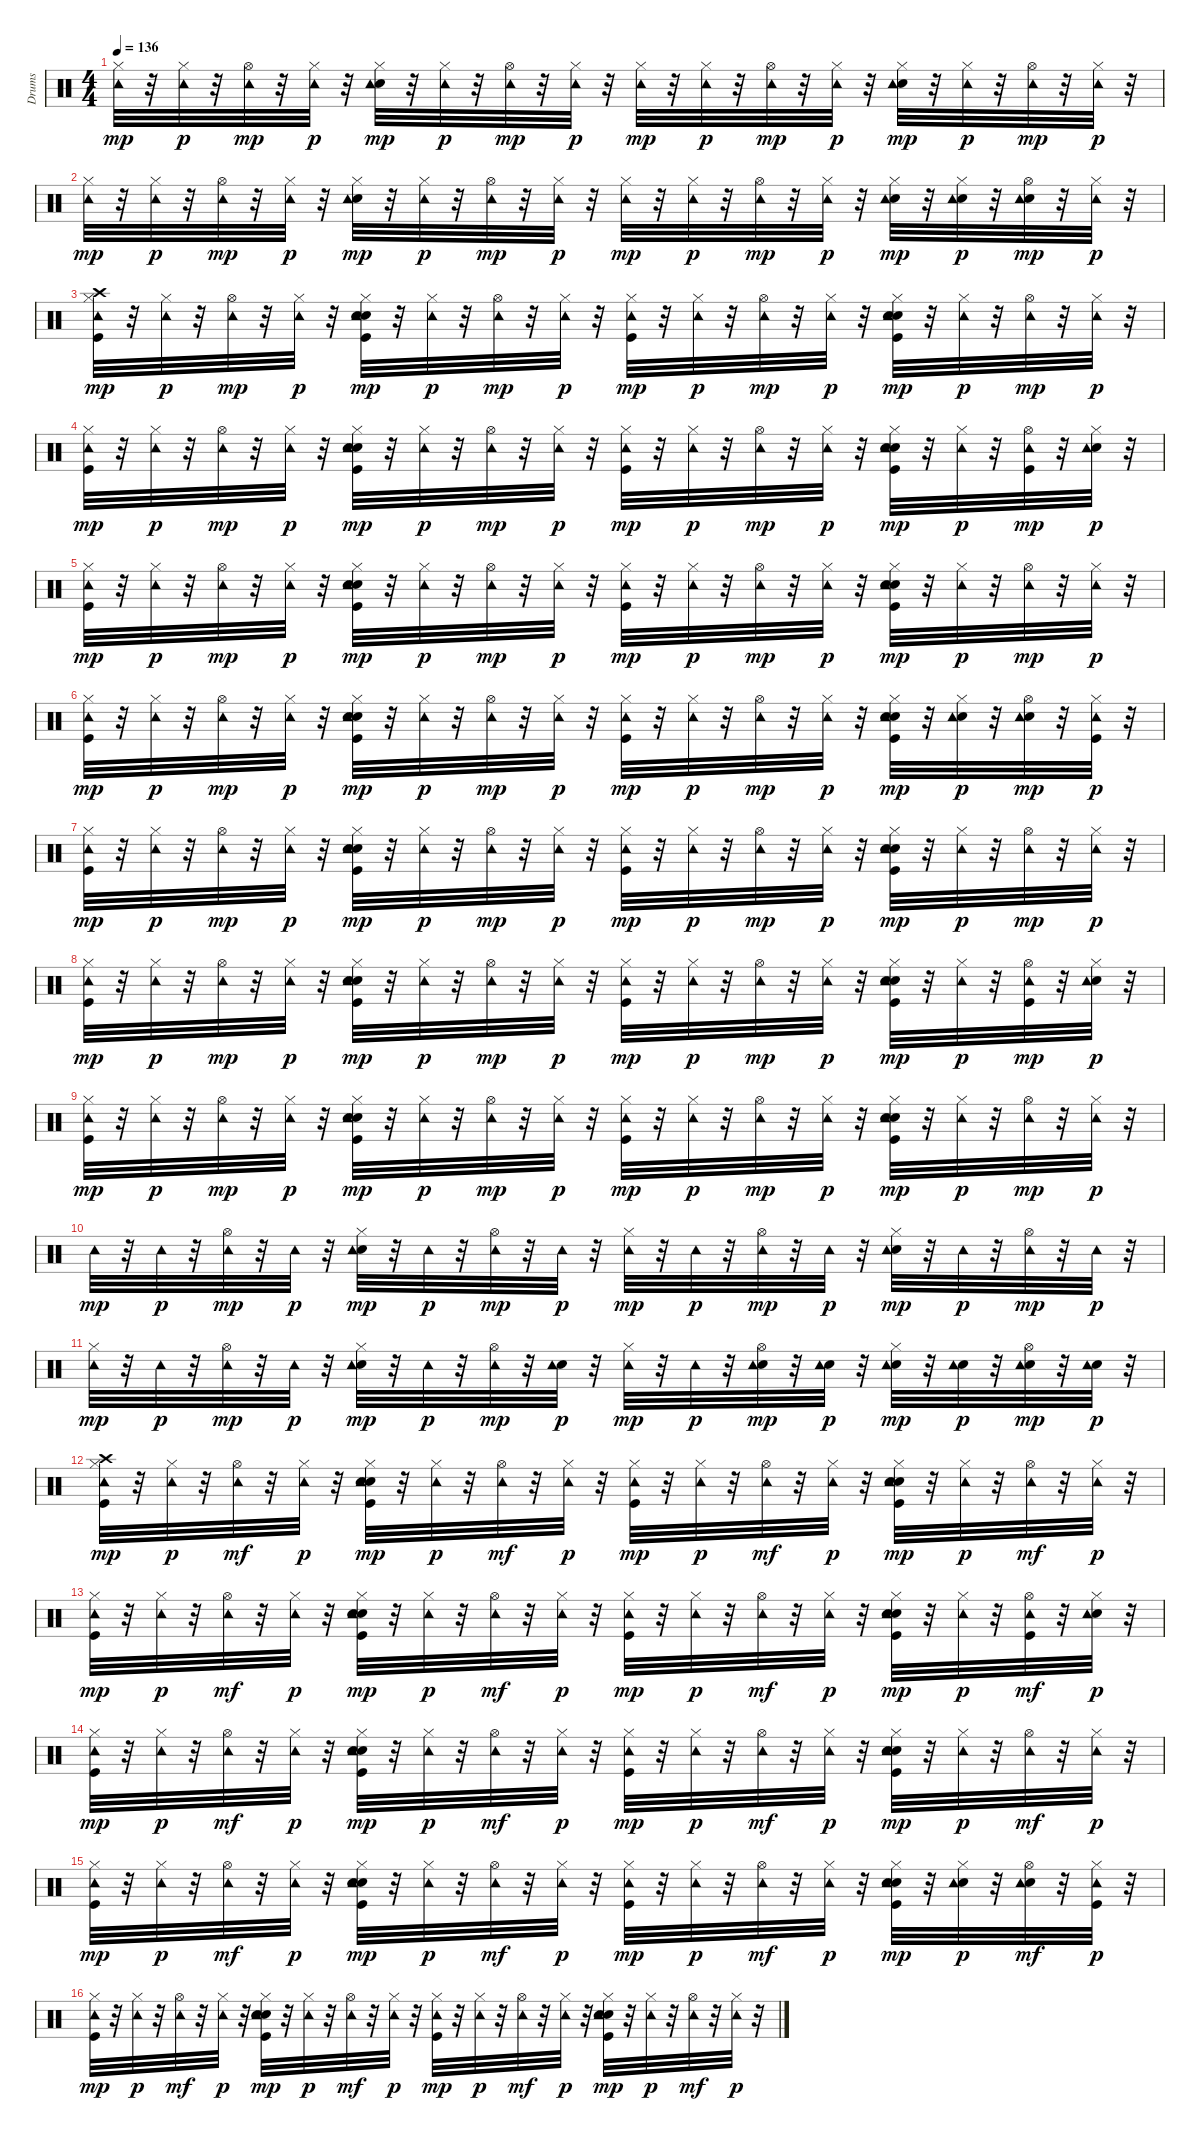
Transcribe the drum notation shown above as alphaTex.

\track ("Drums" "Drums") {instrument percussion}
\staff {score}
\articulation defaults
\ts (4 4)
\tempo 136
\clef neutral
\ks c
("Hi-Hat (closed)" "Tambourine (hit)").32{dy mp} r.32 ("Hi-Hat (closed)" "Tambourine (hit)").32{dy p} r.32 ("Hi-Hat (open)" "Tambourine (hit)").32{dy mp} r.32 ("Hi-Hat (closed)" "Tambourine (hit)").32{dy p} r.32 ("Hand Clap (hit)" "Hi-Hat (closed)" "Tambourine (hit)").32{dy mp} r.32 ("Hi-Hat (closed)" "Tambourine (hit)").32{dy p} r.32 ("Hi-Hat (open)" "Tambourine (hit)").32{dy mp} r.32 ("Hi-Hat (closed)" "Tambourine (hit)").32{dy p} r.32 ("Hi-Hat (closed)" "Tambourine (hit)").32{dy mp} r.32 ("Hi-Hat (closed)" "Tambourine (hit)").32{dy p} r.32 ("Hi-Hat (open)" "Tambourine (hit)").32{dy mp} r.32 ("Hi-Hat (closed)" "Tambourine (hit)").32{dy p} r.32 ("Hand Clap (hit)" "Hi-Hat (closed)" "Tambourine (hit)").32{dy mp} r.32 ("Hi-Hat (closed)" "Tambourine (hit)").32{dy p} r.32 ("Hi-Hat (open)" "Tambourine (hit)").32{dy mp} r.32 ("Hi-Hat (closed)" "Tambourine (hit)").32{dy p} r.32 |
("Hi-Hat (closed)" "Tambourine (hit)").32{dy mp} r.32 ("Hi-Hat (closed)" "Tambourine (hit)").32{dy p} r.32 ("Hi-Hat (open)" "Tambourine (hit)").32{dy mp} r.32 ("Hi-Hat (closed)" "Tambourine (hit)").32{dy p} r.32 ("Hand Clap (hit)" "Hi-Hat (closed)" "Tambourine (hit)").32{dy mp} r.32 ("Hi-Hat (closed)" "Tambourine (hit)").32{dy p} r.32 ("Hi-Hat (open)" "Tambourine (hit)").32{dy mp} r.32 ("Hi-Hat (closed)" "Tambourine (hit)").32{dy p} r.32 ("Hi-Hat (closed)" "Tambourine (hit)").32{dy mp} r.32 ("Hi-Hat (closed)" "Tambourine (hit)").32{dy p} r.32 ("Hi-Hat (open)" "Tambourine (hit)").32{dy mp} r.32 ("Hi-Hat (closed)" "Tambourine (hit)").32{dy p} r.32 ("Hand Clap (hit)" "Hi-Hat (closed)" "Tambourine (hit)").32{dy mp} r.32 ("Hand Clap (hit)" "Hi-Hat (closed)" "Tambourine (hit)").32{dy p} r.32 ("Hand Clap (hit)" "Hi-Hat (open)" "Tambourine (hit)").32{dy mp} r.32 ("Hi-Hat (closed)" "Tambourine (hit)").32{dy p} r.32 |
("Kick (hit)" "Hi-Hat (closed)" "Crash high (hit)" "Tambourine (hit)").32{dy mp} r.32 ("Hi-Hat (closed)" "Tambourine (hit)").32{dy p} r.32 ("Hi-Hat (open)" "Tambourine (hit)").32{dy mp} r.32 ("Hi-Hat (closed)" "Tambourine (hit)").32{dy p} r.32 ("Kick (hit)" "Snare (hit) 2" "Hand Clap (hit)" "Hi-Hat (closed)" "Tambourine (hit)").32{dy mp} r.32 ("Hi-Hat (closed)" "Tambourine (hit)").32{dy p} r.32 ("Hi-Hat (open)" "Tambourine (hit)").32{dy mp} r.32 ("Hi-Hat (closed)" "Tambourine (hit)").32{dy p} r.32 ("Kick (hit)" "Hi-Hat (closed)" "Tambourine (hit)").32{dy mp} r.32 ("Hi-Hat (closed)" "Tambourine (hit)").32{dy p} r.32 ("Hi-Hat (open)" "Tambourine (hit)").32{dy mp} r.32 ("Hi-Hat (closed)" "Tambourine (hit)").32{dy p} r.32 ("Kick (hit)" "Snare (hit) 2" "Hand Clap (hit)" "Hi-Hat (closed)" "Tambourine (hit)").32{dy mp} r.32 ("Hi-Hat (closed)" "Tambourine (hit)").32{dy p} r.32 ("Hi-Hat (open)" "Tambourine (hit)").32{dy mp} r.32 ("Hi-Hat (closed)" "Tambourine (hit)").32{dy p} r.32 |
("Kick (hit)" "Hi-Hat (closed)" "Tambourine (hit)").32{dy mp} r.32 ("Hi-Hat (closed)" "Tambourine (hit)").32{dy p} r.32 ("Hi-Hat (open)" "Tambourine (hit)").32{dy mp} r.32 ("Hi-Hat (closed)" "Tambourine (hit)").32{dy p} r.32 ("Kick (hit)" "Snare (hit) 2" "Hand Clap (hit)" "Hi-Hat (closed)" "Tambourine (hit)").32{dy mp} r.32 ("Hi-Hat (closed)" "Tambourine (hit)").32{dy p} r.32 ("Hi-Hat (open)" "Tambourine (hit)").32{dy mp} r.32 ("Hi-Hat (closed)" "Tambourine (hit)").32{dy p} r.32 ("Kick (hit)" "Hi-Hat (closed)" "Tambourine (hit)").32{dy mp} r.32 ("Hi-Hat (closed)" "Tambourine (hit)").32{dy p} r.32 ("Hi-Hat (open)" "Tambourine (hit)").32{dy mp} r.32 ("Hi-Hat (closed)" "Tambourine (hit)").32{dy p} r.32 ("Kick (hit)" "Snare (hit) 2" "Hand Clap (hit)" "Hi-Hat (closed)" "Tambourine (hit)").32{dy mp} r.32 ("Hi-Hat (closed)" "Tambourine (hit)").32{dy p} r.32 ("Kick (hit)" "Hi-Hat (open)" "Tambourine (hit)").32{dy mp} r.32 ("Hand Clap (hit)" "Hi-Hat (closed)" "Tambourine (hit)").32{dy p} r.32 |
("Kick (hit)" "Hi-Hat (closed)" "Tambourine (hit)").32{dy mp} r.32 ("Hi-Hat (closed)" "Tambourine (hit)").32{dy p} r.32 ("Hi-Hat (open)" "Tambourine (hit)").32{dy mp} r.32 ("Hi-Hat (closed)" "Tambourine (hit)").32{dy p} r.32 ("Kick (hit)" "Snare (hit) 2" "Hand Clap (hit)" "Hi-Hat (closed)" "Tambourine (hit)").32{dy mp} r.32 ("Hi-Hat (closed)" "Tambourine (hit)").32{dy p} r.32 ("Hi-Hat (open)" "Tambourine (hit)").32{dy mp} r.32 ("Hi-Hat (closed)" "Tambourine (hit)").32{dy p} r.32 ("Kick (hit)" "Hi-Hat (closed)" "Tambourine (hit)").32{dy mp} r.32 ("Hi-Hat (closed)" "Tambourine (hit)").32{dy p} r.32 ("Hi-Hat (open)" "Tambourine (hit)").32{dy mp} r.32 ("Hi-Hat (closed)" "Tambourine (hit)").32{dy p} r.32 ("Kick (hit)" "Snare (hit) 2" "Hand Clap (hit)" "Hi-Hat (closed)" "Tambourine (hit)").32{dy mp} r.32 ("Hi-Hat (closed)" "Tambourine (hit)").32{dy p} r.32 ("Hi-Hat (open)" "Tambourine (hit)").32{dy mp} r.32 ("Hi-Hat (closed)" "Tambourine (hit)").32{dy p} r.32 |
("Kick (hit)" "Hi-Hat (closed)" "Tambourine (hit)").32{dy mp} r.32 ("Hi-Hat (closed)" "Tambourine (hit)").32{dy p} r.32 ("Hi-Hat (open)" "Tambourine (hit)").32{dy mp} r.32 ("Hi-Hat (closed)" "Tambourine (hit)").32{dy p} r.32 ("Kick (hit)" "Snare (hit) 2" "Hand Clap (hit)" "Hi-Hat (closed)" "Tambourine (hit)").32{dy mp} r.32 ("Hi-Hat (closed)" "Tambourine (hit)").32{dy p} r.32 ("Hi-Hat (open)" "Tambourine (hit)").32{dy mp} r.32 ("Hi-Hat (closed)" "Tambourine (hit)").32{dy p} r.32 ("Kick (hit)" "Hi-Hat (closed)" "Tambourine (hit)").32{dy mp} r.32 ("Hi-Hat (closed)" "Tambourine (hit)").32{dy p} r.32 ("Hi-Hat (open)" "Tambourine (hit)").32{dy mp} r.32 ("Hi-Hat (closed)" "Tambourine (hit)").32{dy p} r.32 ("Kick (hit)" "Snare (hit) 2" "Hand Clap (hit)" "Hi-Hat (closed)" "Tambourine (hit)").32{dy mp} r.32 ("Hand Clap (hit)" "Hi-Hat (closed)" "Tambourine (hit)").32{dy p} r.32 ("Hand Clap (hit)" "Hi-Hat (open)" "Tambourine (hit)").32{dy mp} r.32 ("Kick (hit)" "Hi-Hat (closed)" "Tambourine (hit)").32{dy p} r.32 |
("Kick (hit)" "Hi-Hat (closed)" "Tambourine (hit)").32{dy mp} r.32 ("Hi-Hat (closed)" "Tambourine (hit)").32{dy p} r.32 ("Hi-Hat (open)" "Tambourine (hit)").32{dy mp} r.32 ("Hi-Hat (closed)" "Tambourine (hit)").32{dy p} r.32 ("Kick (hit)" "Snare (hit) 2" "Hand Clap (hit)" "Hi-Hat (closed)" "Tambourine (hit)").32{dy mp} r.32 ("Hi-Hat (closed)" "Tambourine (hit)").32{dy p} r.32 ("Hi-Hat (open)" "Tambourine (hit)").32{dy mp} r.32 ("Hi-Hat (closed)" "Tambourine (hit)").32{dy p} r.32 ("Kick (hit)" "Hi-Hat (closed)" "Tambourine (hit)").32{dy mp} r.32 ("Hi-Hat (closed)" "Tambourine (hit)").32{dy p} r.32 ("Hi-Hat (open)" "Tambourine (hit)").32{dy mp} r.32 ("Hi-Hat (closed)" "Tambourine (hit)").32{dy p} r.32 ("Kick (hit)" "Snare (hit) 2" "Hand Clap (hit)" "Hi-Hat (closed)" "Tambourine (hit)").32{dy mp} r.32 ("Hi-Hat (closed)" "Tambourine (hit)").32{dy p} r.32 ("Hi-Hat (open)" "Tambourine (hit)").32{dy mp} r.32 ("Hi-Hat (closed)" "Tambourine (hit)").32{dy p} r.32 |
("Kick (hit)" "Hi-Hat (closed)" "Tambourine (hit)").32{dy mp} r.32 ("Hi-Hat (closed)" "Tambourine (hit)").32{dy p} r.32 ("Hi-Hat (open)" "Tambourine (hit)").32{dy mp} r.32 ("Hi-Hat (closed)" "Tambourine (hit)").32{dy p} r.32 ("Kick (hit)" "Snare (hit) 2" "Hand Clap (hit)" "Hi-Hat (closed)" "Tambourine (hit)").32{dy mp} r.32 ("Hi-Hat (closed)" "Tambourine (hit)").32{dy p} r.32 ("Hi-Hat (open)" "Tambourine (hit)").32{dy mp} r.32 ("Hi-Hat (closed)" "Tambourine (hit)").32{dy p} r.32 ("Kick (hit)" "Hi-Hat (closed)" "Tambourine (hit)").32{dy mp} r.32 ("Hi-Hat (closed)" "Tambourine (hit)").32{dy p} r.32 ("Hi-Hat (open)" "Tambourine (hit)").32{dy mp} r.32 ("Hi-Hat (closed)" "Tambourine (hit)").32{dy p} r.32 ("Kick (hit)" "Snare (hit) 2" "Hand Clap (hit)" "Hi-Hat (closed)" "Tambourine (hit)").32{dy mp} r.32 ("Hi-Hat (closed)" "Tambourine (hit)").32{dy p} r.32 ("Kick (hit)" "Hi-Hat (open)" "Tambourine (hit)").32{dy mp} r.32 ("Hand Clap (hit)" "Hi-Hat (closed)" "Tambourine (hit)").32{dy p} r.32 |
("Kick (hit)" "Hi-Hat (closed)" "Tambourine (hit)").32{dy mp} r.32 ("Hi-Hat (closed)" "Tambourine (hit)").32{dy p} r.32 ("Hi-Hat (open)" "Tambourine (hit)").32{dy mp} r.32 ("Hi-Hat (closed)" "Tambourine (hit)").32{dy p} r.32 ("Kick (hit)" "Snare (hit) 2" "Hand Clap (hit)" "Hi-Hat (closed)" "Tambourine (hit)").32{dy mp} r.32 ("Hi-Hat (closed)" "Tambourine (hit)").32{dy p} r.32 ("Hi-Hat (open)" "Tambourine (hit)").32{dy mp} r.32 ("Hi-Hat (closed)" "Tambourine (hit)").32{dy p} r.32 ("Kick (hit)" "Hi-Hat (closed)" "Tambourine (hit)").32{dy mp} r.32 ("Hi-Hat (closed)" "Tambourine (hit)").32{dy p} r.32 ("Hi-Hat (open)" "Tambourine (hit)").32{dy mp} r.32 ("Hi-Hat (closed)" "Tambourine (hit)").32{dy p} r.32 ("Kick (hit)" "Snare (hit) 2" "Hand Clap (hit)" "Hi-Hat (closed)" "Tambourine (hit)").32{dy mp} r.32 ("Hi-Hat (closed)" "Tambourine (hit)").32{dy p} r.32 ("Hi-Hat (open)" "Tambourine (hit)").32{dy mp} r.32 ("Hi-Hat (closed)" "Tambourine (hit)").32{dy p} r.32 |
"Tambourine (hit)".32{dy mp} r.32 "Tambourine (hit)".32{dy p} r.32 ("Hi-Hat (open)" "Tambourine (hit)").32{dy mp} r.32 "Tambourine (hit)".32{dy p} r.32 ("Snare (hit) 2" "Hi-Hat (closed)" "Tambourine (hit)").32{dy mp} r.32 "Tambourine (hit)".32{dy p} r.32 ("Hi-Hat (open)" "Tambourine (hit)").32{dy mp} r.32 "Tambourine (hit)".32{dy p} r.32 ("Hi-Hat (closed)" "Tambourine (hit)").32{dy mp} r.32 "Tambourine (hit)".32{dy p} r.32 ("Hi-Hat (open)" "Tambourine (hit)").32{dy mp} r.32 "Tambourine (hit)".32{dy p} r.32 ("Snare (hit) 2" "Hi-Hat (closed)" "Tambourine (hit)").32{dy mp} r.32 "Tambourine (hit)".32{dy p} r.32 ("Hi-Hat (open)" "Tambourine (hit)").32{dy mp} r.32 "Tambourine (hit)".32{dy p} r.32 |
("Hi-Hat (closed)" "Tambourine (hit)").32{dy mp} r.32 "Tambourine (hit)".32{dy p} r.32 ("Hi-Hat (open)" "Tambourine (hit)").32{dy mp} r.32 "Tambourine (hit)".32{dy p} r.32 ("Snare (hit) 2" "Hi-Hat (closed)" "Tambourine (hit)").32{dy mp} r.32 "Tambourine (hit)".32{dy p} r.32 ("Hi-Hat (open)" "Tambourine (hit)").32{dy mp} r.32 ("Snare (hit) 2" "Tambourine (hit)").32{dy p} r.32 ("Hi-Hat (closed)" "Tambourine (hit)").32{dy mp} r.32 "Tambourine (hit)".32{dy p} r.32 ("Snare (hit) 2" "Hi-Hat (open)" "Tambourine (hit)").32{dy mp} r.32 ("Snare (hit) 2" "Tambourine (hit)").32{dy p} r.32 ("Snare (hit) 2" "Hi-Hat (closed)" "Tambourine (hit)").32{dy mp} r.32 ("Snare (hit) 2" "Tambourine (hit)").32{dy p} r.32 ("Snare (hit) 2" "Hi-Hat (open)" "Tambourine (hit)").32{dy mp} r.32 ("Snare (hit) 2" "Tambourine (hit)").32{dy p} r.32 |
("Kick (hit)" "Hi-Hat (closed)" "Crash high (hit)" "Tambourine (hit)").32{dy mp} r.32 ("Hi-Hat (closed)" "Tambourine (hit)").32{dy p} r.32 ("Hi-Hat (open)" "Tambourine (hit)").32{dy mf} r.32 ("Hi-Hat (closed)" "Tambourine (hit)").32{dy p} r.32 ("Kick (hit)" "Snare (hit) 2" "Hand Clap (hit)" "Hi-Hat (closed)" "Tambourine (hit)").32{dy mp} r.32 ("Hi-Hat (closed)" "Tambourine (hit)").32{dy p} r.32 ("Hi-Hat (open)" "Tambourine (hit)").32{dy mf} r.32 ("Hi-Hat (closed)" "Tambourine (hit)").32{dy p} r.32 ("Kick (hit)" "Hi-Hat (closed)" "Tambourine (hit)").32{dy mp} r.32 ("Hi-Hat (closed)" "Tambourine (hit)").32{dy p} r.32 ("Hi-Hat (open)" "Tambourine (hit)").32{dy mf} r.32 ("Hi-Hat (closed)" "Tambourine (hit)").32{dy p} r.32 ("Kick (hit)" "Snare (hit) 2" "Hand Clap (hit)" "Hi-Hat (closed)" "Tambourine (hit)").32{dy mp} r.32 ("Hi-Hat (closed)" "Tambourine (hit)").32{dy p} r.32 ("Hi-Hat (open)" "Tambourine (hit)").32{dy mf} r.32 ("Hi-Hat (closed)" "Tambourine (hit)").32{dy p} r.32 |
("Kick (hit)" "Hi-Hat (closed)" "Tambourine (hit)").32{dy mp} r.32 ("Hi-Hat (closed)" "Tambourine (hit)").32{dy p} r.32 ("Hi-Hat (open)" "Tambourine (hit)").32{dy mf} r.32 ("Hi-Hat (closed)" "Tambourine (hit)").32{dy p} r.32 ("Kick (hit)" "Snare (hit) 2" "Hand Clap (hit)" "Hi-Hat (closed)" "Tambourine (hit)").32{dy mp} r.32 ("Hi-Hat (closed)" "Tambourine (hit)").32{dy p} r.32 ("Hi-Hat (open)" "Tambourine (hit)").32{dy mf} r.32 ("Hi-Hat (closed)" "Tambourine (hit)").32{dy p} r.32 ("Kick (hit)" "Hi-Hat (closed)" "Tambourine (hit)").32{dy mp} r.32 ("Hi-Hat (closed)" "Tambourine (hit)").32{dy p} r.32 ("Hi-Hat (open)" "Tambourine (hit)").32{dy mf} r.32 ("Hi-Hat (closed)" "Tambourine (hit)").32{dy p} r.32 ("Kick (hit)" "Snare (hit) 2" "Hand Clap (hit)" "Hi-Hat (closed)" "Tambourine (hit)").32{dy mp} r.32 ("Hi-Hat (closed)" "Tambourine (hit)").32{dy p} r.32 ("Kick (hit)" "Hi-Hat (open)" "Tambourine (hit)").32{dy mf} r.32 ("Hand Clap (hit)" "Hi-Hat (closed)" "Tambourine (hit)").32{dy p} r.32 |
("Kick (hit)" "Hi-Hat (closed)" "Tambourine (hit)").32{dy mp} r.32 ("Hi-Hat (closed)" "Tambourine (hit)").32{dy p} r.32 ("Hi-Hat (open)" "Tambourine (hit)").32{dy mf} r.32 ("Hi-Hat (closed)" "Tambourine (hit)").32{dy p} r.32 ("Kick (hit)" "Snare (hit) 2" "Hand Clap (hit)" "Hi-Hat (closed)" "Tambourine (hit)").32{dy mp} r.32 ("Hi-Hat (closed)" "Tambourine (hit)").32{dy p} r.32 ("Hi-Hat (open)" "Tambourine (hit)").32{dy mf} r.32 ("Hi-Hat (closed)" "Tambourine (hit)").32{dy p} r.32 ("Kick (hit)" "Hi-Hat (closed)" "Tambourine (hit)").32{dy mp} r.32 ("Hi-Hat (closed)" "Tambourine (hit)").32{dy p} r.32 ("Hi-Hat (open)" "Tambourine (hit)").32{dy mf} r.32 ("Hi-Hat (closed)" "Tambourine (hit)").32{dy p} r.32 ("Kick (hit)" "Snare (hit) 2" "Hand Clap (hit)" "Hi-Hat (closed)" "Tambourine (hit)").32{dy mp} r.32 ("Hi-Hat (closed)" "Tambourine (hit)").32{dy p} r.32 ("Hi-Hat (open)" "Tambourine (hit)").32{dy mf} r.32 ("Hi-Hat (closed)" "Tambourine (hit)").32{dy p} r.32 |
("Kick (hit)" "Hi-Hat (closed)" "Tambourine (hit)").32{dy mp} r.32 ("Hi-Hat (closed)" "Tambourine (hit)").32{dy p} r.32 ("Hi-Hat (open)" "Tambourine (hit)").32{dy mf} r.32 ("Hi-Hat (closed)" "Tambourine (hit)").32{dy p} r.32 ("Kick (hit)" "Snare (hit) 2" "Hand Clap (hit)" "Hi-Hat (closed)" "Tambourine (hit)").32{dy mp} r.32 ("Hi-Hat (closed)" "Tambourine (hit)").32{dy p} r.32 ("Hi-Hat (open)" "Tambourine (hit)").32{dy mf} r.32 ("Hi-Hat (closed)" "Tambourine (hit)").32{dy p} r.32 ("Kick (hit)" "Hi-Hat (closed)" "Tambourine (hit)").32{dy mp} r.32 ("Hi-Hat (closed)" "Tambourine (hit)").32{dy p} r.32 ("Hi-Hat (open)" "Tambourine (hit)").32{dy mf} r.32 ("Hi-Hat (closed)" "Tambourine (hit)").32{dy p} r.32 ("Kick (hit)" "Snare (hit) 2" "Hand Clap (hit)" "Hi-Hat (closed)" "Tambourine (hit)").32{dy mp} r.32 ("Hand Clap (hit)" "Hi-Hat (closed)" "Tambourine (hit)").32{dy p} r.32 ("Hand Clap (hit)" "Hi-Hat (open)" "Tambourine (hit)").32{dy mf} r.32 ("Kick (hit)" "Hi-Hat (closed)" "Tambourine (hit)").32{dy p} r.32 |
("Kick (hit)" "Hi-Hat (closed)" "Tambourine (hit)").32{dy mp} r.32 ("Hi-Hat (closed)" "Tambourine (hit)").32{dy p} r.32 ("Hi-Hat (open)" "Tambourine (hit)").32{dy mf} r.32 ("Hi-Hat (closed)" "Tambourine (hit)").32{dy p} r.32 ("Kick (hit)" "Snare (hit) 2" "Hand Clap (hit)" "Hi-Hat (closed)" "Tambourine (hit)").32{dy mp} r.32 ("Hi-Hat (closed)" "Tambourine (hit)").32{dy p} r.32 ("Hi-Hat (open)" "Tambourine (hit)").32{dy mf} r.32 ("Hi-Hat (closed)" "Tambourine (hit)").32{dy p} r.32 ("Kick (hit)" "Hi-Hat (closed)" "Tambourine (hit)").32{dy mp} r.32 ("Hi-Hat (closed)" "Tambourine (hit)").32{dy p} r.32 ("Hi-Hat (open)" "Tambourine (hit)").32{dy mf} r.32 ("Hi-Hat (closed)" "Tambourine (hit)").32{dy p} r.32 ("Kick (hit)" "Snare (hit) 2" "Hand Clap (hit)" "Hi-Hat (closed)" "Tambourine (hit)").32{dy mp} r.32 ("Hi-Hat (closed)" "Tambourine (hit)").32{dy p} r.32 ("Hi-Hat (open)" "Tambourine (hit)").32{dy mf} r.32 ("Hi-Hat (closed)" "Tambourine (hit)").32{dy p} r.32
